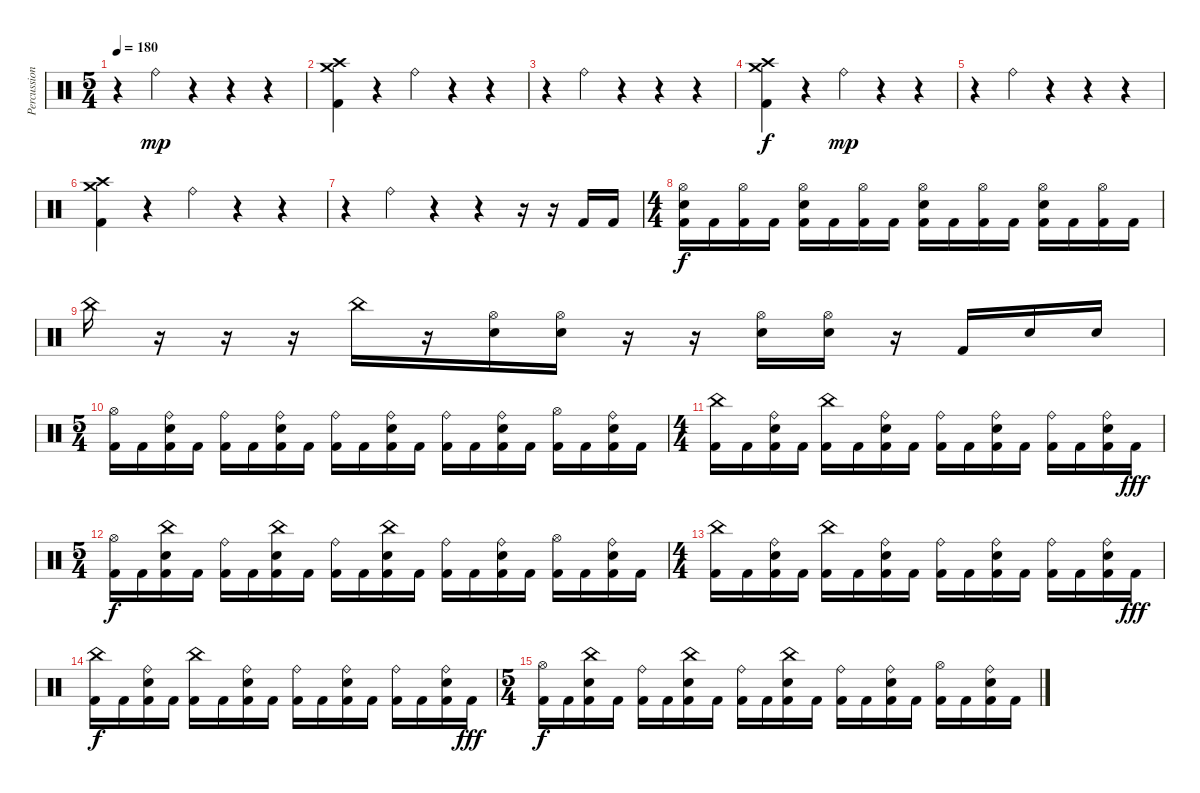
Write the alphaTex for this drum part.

\track ("Percussion" "Percussion") {instrument percussion}
\staff {score}
\articulation defaults
\ts (5 4)
\tempo 180
\clef neutral
\ks c
r.4{dy mp} "Ride (bell)".4 r.4 r.4 r.4 |
("Crash medium (hit)" "Crash high (hit)" "Kick (hit) 2").4 r.4 "Ride (bell)".4 r.4 r.4 |
r.4 "Ride (bell)".4 r.4 r.4 r.4 |
("Crash medium (hit)" "Crash high (hit)" "Kick (hit) 2").4{dy f} r.4 "Ride (bell)".4{dy mp} r.4 r.4 |
r.4 "Ride (bell)".4 r.4 r.4 r.4 |
("Crash medium (hit)" "Crash high (hit)" "Kick (hit) 2").4 r.4 "Ride (bell)".4 r.4 r.4 |
r.4 "Ride (bell)".4 r.4 r.4 r.16 r.16 "Kick (hit) 2".16 "Kick (hit) 2".16 |
\ts (4 4)
("Hi-Hat (open)" "Electric Snare (hit)" "Kick (hit) 2").16{dy f} "Kick (hit) 2".16 ("Hi-Hat (open)" "Kick (hit) 2").16 "Kick (hit) 2".16 ("Hi-Hat (open)" "Electric Snare (hit)" "Kick (hit) 2").16 "Kick (hit) 2".16 ("Hi-Hat (open)" "Kick (hit) 2").16 "Kick (hit) 2".16 ("Hi-Hat (open)" "Electric Snare (hit)" "Kick (hit) 2").16 "Kick (hit) 2".16 ("Hi-Hat (open)" "Kick (hit) 2").16 "Kick (hit) 2".16 ("Hi-Hat (open)" "Electric Snare (hit)" "Kick (hit) 2").16 "Kick (hit) 2".16 ("Hi-Hat (open)" "Kick (hit) 2").16 "Kick (hit) 2".16 |
"China (hit)".16 r.16 r.16 r.16 "China (hit)".16 r.16 ("Hi-Hat (open)" "Electric Snare (hit)").16 ("Hi-Hat (open)" "Electric Snare (hit)").16 r.16 r.16 ("Hi-Hat (open)" "Electric Snare (hit)").16 ("Hi-Hat (open)" "Electric Snare (hit)").16 r.16 "Kick (hit) 2".16 "Electric Snare (hit)".16 "Electric Snare (hit)".16 |
\ts (5 4)
("Hi-Hat (open)" "Kick (hit) 2").16 "Kick (hit) 2".16 ("Ride (bell)" "Electric Snare (hit)" "Kick (hit) 2").16 "Kick (hit) 2".16 ("Ride (bell)" "Kick (hit) 2").16 "Kick (hit) 2".16 ("Ride (bell)" "Electric Snare (hit)" "Kick (hit) 2").16 "Kick (hit) 2".16 ("Ride (bell)" "Kick (hit) 2").16 "Kick (hit) 2".16 ("Ride (bell)" "Electric Snare (hit)" "Kick (hit) 2").16 "Kick (hit) 2".16 ("Ride (bell)" "Kick (hit) 2").16 "Kick (hit) 2".16 ("Ride (bell)" "Electric Snare (hit)" "Kick (hit) 2").16 "Kick (hit) 2".16 ("Hi-Hat (open)" "Kick (hit) 2").16 "Kick (hit) 2".16 ("Ride (bell)" "Electric Snare (hit)" "Kick (hit) 2").16 "Kick (hit) 2".16 |
\ts (4 4)
("China (hit)" "Kick (hit) 2").16 "Kick (hit) 2".16 ("Ride (bell)" "Electric Snare (hit)" "Kick (hit) 2").16 "Kick (hit) 2".16 ("China (hit)" "Kick (hit) 2").16 "Kick (hit) 2".16 ("Ride (bell)" "Electric Snare (hit)" "Kick (hit) 2").16 "Kick (hit) 2".16 ("Ride (bell)" "Kick (hit) 2").16 "Kick (hit) 2".16 ("Ride (bell)" "Electric Snare (hit)" "Kick (hit) 2").16 "Kick (hit) 2".16 ("Ride (bell)" "Kick (hit) 2").16 "Kick (hit) 2".16 ("Ride (bell)" "Electric Snare (hit)" "Kick (hit) 2").16 "Kick (hit) 2".16{dy fff} |
\ts (5 4)
("Hi-Hat (open)" "Kick (hit) 2").16{dy f} "Kick (hit) 2".16 ("China (hit)" "Electric Snare (hit)" "Kick (hit) 2").16 "Kick (hit) 2".16 ("Ride (bell)" "Kick (hit) 2").16 "Kick (hit) 2".16 ("China (hit)" "Electric Snare (hit)" "Kick (hit) 2").16 "Kick (hit) 2".16 ("Ride (bell)" "Kick (hit) 2").16 "Kick (hit) 2".16 ("China (hit)" "Electric Snare (hit)" "Kick (hit) 2").16 "Kick (hit) 2".16 ("Ride (bell)" "Kick (hit) 2").16 "Kick (hit) 2".16 ("Ride (bell)" "Electric Snare (hit)" "Kick (hit) 2").16 "Kick (hit) 2".16 ("Hi-Hat (open)" "Kick (hit) 2").16 "Kick (hit) 2".16 ("Ride (bell)" "Electric Snare (hit)" "Kick (hit) 2").16 "Kick (hit) 2".16 |
\ts (4 4)
("China (hit)" "Kick (hit) 2").16 "Kick (hit) 2".16 ("Ride (bell)" "Electric Snare (hit)" "Kick (hit) 2").16 "Kick (hit) 2".16 ("China (hit)" "Kick (hit) 2").16 "Kick (hit) 2".16 ("Ride (bell)" "Electric Snare (hit)" "Kick (hit) 2").16 "Kick (hit) 2".16 ("Ride (bell)" "Kick (hit) 2").16 "Kick (hit) 2".16 ("Ride (bell)" "Electric Snare (hit)" "Kick (hit) 2").16 "Kick (hit) 2".16 ("Ride (bell)" "Kick (hit) 2").16 "Kick (hit) 2".16 ("Ride (bell)" "Electric Snare (hit)" "Kick (hit) 2").16 "Kick (hit) 2".16{dy fff} |
("China (hit)" "Kick (hit) 2").16{dy f} "Kick (hit) 2".16 ("Ride (bell)" "Electric Snare (hit)" "Kick (hit) 2").16 "Kick (hit) 2".16 ("China (hit)" "Kick (hit) 2").16 "Kick (hit) 2".16 ("Ride (bell)" "Electric Snare (hit)" "Kick (hit) 2").16 "Kick (hit) 2".16 ("Ride (bell)" "Kick (hit) 2").16 "Kick (hit) 2".16 ("Ride (bell)" "Electric Snare (hit)" "Kick (hit) 2").16 "Kick (hit) 2".16 ("Ride (bell)" "Kick (hit) 2").16 "Kick (hit) 2".16 ("Ride (bell)" "Electric Snare (hit)" "Kick (hit) 2").16 "Kick (hit) 2".16{dy fff} |
\ts (5 4)
("Hi-Hat (open)" "Kick (hit) 2").16{dy f} "Kick (hit) 2".16 ("China (hit)" "Electric Snare (hit)" "Kick (hit) 2").16 "Kick (hit) 2".16 ("Ride (bell)" "Kick (hit) 2").16 "Kick (hit) 2".16 ("China (hit)" "Electric Snare (hit)" "Kick (hit) 2").16 "Kick (hit) 2".16 ("Ride (bell)" "Kick (hit) 2").16 "Kick (hit) 2".16 ("China (hit)" "Electric Snare (hit)" "Kick (hit) 2").16 "Kick (hit) 2".16 ("Ride (bell)" "Kick (hit) 2").16 "Kick (hit) 2".16 ("Ride (bell)" "Electric Snare (hit)" "Kick (hit) 2").16 "Kick (hit) 2".16 ("Hi-Hat (open)" "Kick (hit) 2").16 "Kick (hit) 2".16 ("Ride (bell)" "Electric Snare (hit)" "Kick (hit) 2").16 "Kick (hit) 2".16
